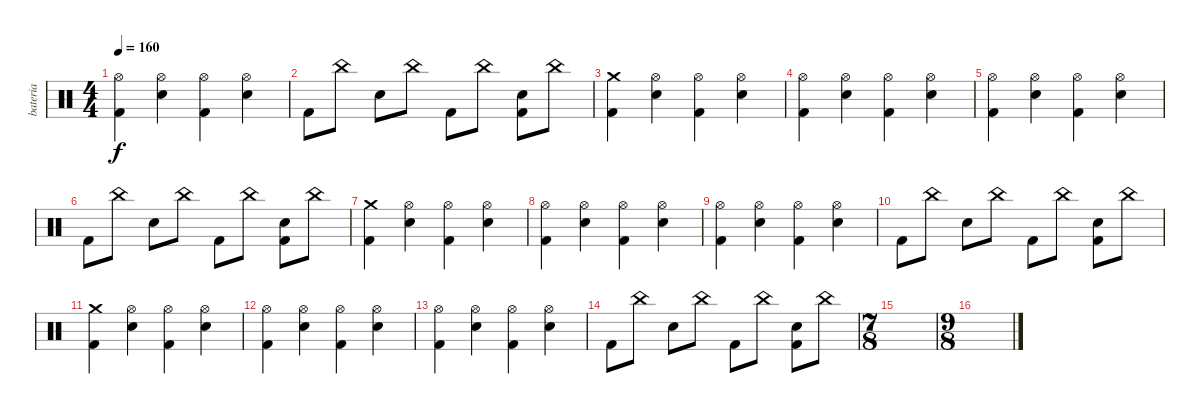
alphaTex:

\track ("bateria" "bateria") {instrument percussion}
\staff {score}
\articulation defaults
\ts (4 4)
\tempo 160
\clef neutral
\ks c
("Hi-Hat (open)" "Kick (hit) 2").4{dy f} ("Hi-Hat (open)" "Electric Snare (hit)").4 ("Hi-Hat (open)" "Kick (hit) 2").4 ("Hi-Hat (open)" "Electric Snare (hit)").4 |
"Kick (hit) 2".8 "China (hit)".8 "Electric Snare (hit)".8 "China (hit)".8 "Kick (hit) 2".8 "China (hit)".8 ("Electric Snare (hit)" "Kick (hit) 2").8 "China (hit)".8 |
("Crash medium (hit)" "Kick (hit) 2").4 ("Hi-Hat (open)" "Electric Snare (hit)").4 ("Hi-Hat (open)" "Kick (hit) 2").4 ("Hi-Hat (open)" "Electric Snare (hit)").4 |
("Hi-Hat (open)" "Kick (hit) 2").4 ("Hi-Hat (open)" "Electric Snare (hit)").4 ("Hi-Hat (open)" "Kick (hit) 2").4 ("Hi-Hat (open)" "Electric Snare (hit)").4 |
("Hi-Hat (open)" "Kick (hit) 2").4 ("Hi-Hat (open)" "Electric Snare (hit)").4 ("Hi-Hat (open)" "Kick (hit) 2").4 ("Hi-Hat (open)" "Electric Snare (hit)").4 |
"Kick (hit) 2".8 "China (hit)".8 "Electric Snare (hit)".8 "China (hit)".8 "Kick (hit) 2".8 "China (hit)".8 ("Electric Snare (hit)" "Kick (hit) 2").8 "China (hit)".8 |
("Crash medium (hit)" "Kick (hit) 2").4 ("Hi-Hat (open)" "Electric Snare (hit)").4 ("Hi-Hat (open)" "Kick (hit) 2").4 ("Hi-Hat (open)" "Electric Snare (hit)").4 |
("Hi-Hat (open)" "Kick (hit) 2").4 ("Hi-Hat (open)" "Electric Snare (hit)").4 ("Hi-Hat (open)" "Kick (hit) 2").4 ("Hi-Hat (open)" "Electric Snare (hit)").4 |
("Hi-Hat (open)" "Kick (hit) 2").4 ("Hi-Hat (open)" "Electric Snare (hit)").4 ("Hi-Hat (open)" "Kick (hit) 2").4 ("Hi-Hat (open)" "Electric Snare (hit)").4 |
"Kick (hit) 2".8 "China (hit)".8 "Electric Snare (hit)".8 "China (hit)".8 "Kick (hit) 2".8 "China (hit)".8 ("Electric Snare (hit)" "Kick (hit) 2").8 "China (hit)".8 |
("Crash medium (hit)" "Kick (hit) 2").4 ("Hi-Hat (open)" "Electric Snare (hit)").4 ("Hi-Hat (open)" "Kick (hit) 2").4 ("Hi-Hat (open)" "Electric Snare (hit)").4 |
("Hi-Hat (open)" "Kick (hit) 2").4 ("Hi-Hat (open)" "Electric Snare (hit)").4 ("Hi-Hat (open)" "Kick (hit) 2").4 ("Hi-Hat (open)" "Electric Snare (hit)").4 |
("Hi-Hat (open)" "Kick (hit) 2").4 ("Hi-Hat (open)" "Electric Snare (hit)").4 ("Hi-Hat (open)" "Kick (hit) 2").4 ("Hi-Hat (open)" "Electric Snare (hit)").4 |
"Kick (hit) 2".8 "China (hit)".8 "Electric Snare (hit)".8 "China (hit)".8 "Kick (hit) 2".8 "China (hit)".8 ("Electric Snare (hit)" "Kick (hit) 2").8 "China (hit)".8 |
\ts (7 8)
|
\ts (9 8)
